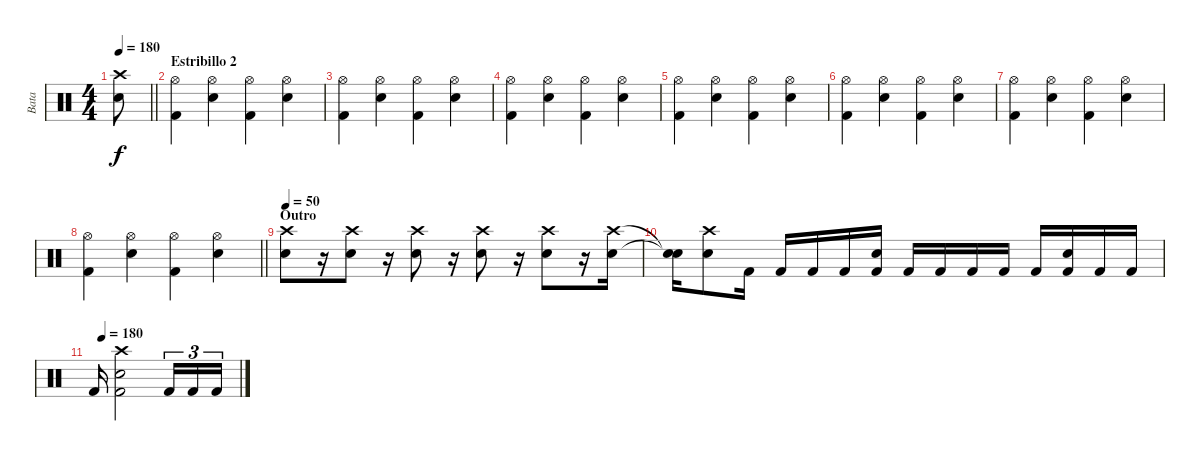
\track ("Bata" "Bata") {instrument percussion}
\staff {score}
\articulation defaults
\ts (4 4)
\tempo 180
\clef neutral
\barLineRight lightlight
\ks c
("Crash high (hit)" "Snare (hit) 2").8{dy f} |
\section ("" "Estribillo 2")
("Hi-Hat (open)" "Kick (hit) 2").4 ("Hi-Hat (open)" "Snare (hit) 2").4 ("Hi-Hat (open)" "Kick (hit) 2").4 ("Hi-Hat (open)" "Snare (hit) 2").4 |
("Hi-Hat (open)" "Kick (hit) 2").4 ("Hi-Hat (open)" "Snare (hit) 2").4 ("Hi-Hat (open)" "Kick (hit) 2").4 ("Hi-Hat (open)" "Snare (hit) 2").4 |
("Hi-Hat (open)" "Kick (hit) 2").4 ("Hi-Hat (open)" "Snare (hit) 2").4 ("Hi-Hat (open)" "Kick (hit) 2").4 ("Hi-Hat (open)" "Snare (hit) 2").4 |
("Hi-Hat (open)" "Kick (hit) 2").4 ("Hi-Hat (open)" "Snare (hit) 2").4 ("Hi-Hat (open)" "Kick (hit) 2").4 ("Hi-Hat (open)" "Snare (hit) 2").4 |
("Hi-Hat (open)" "Kick (hit) 2").4 ("Hi-Hat (open)" "Snare (hit) 2").4 ("Hi-Hat (open)" "Kick (hit) 2").4 ("Hi-Hat (open)" "Snare (hit) 2").4 |
("Hi-Hat (open)" "Kick (hit) 2").4 ("Hi-Hat (open)" "Snare (hit) 2").4 ("Hi-Hat (open)" "Kick (hit) 2").4 ("Hi-Hat (open)" "Snare (hit) 2").4 |
\barLineRight lightlight
("Hi-Hat (open)" "Kick (hit) 2").4 ("Hi-Hat (open)" "Snare (hit) 2").4 ("Hi-Hat (open)" "Kick (hit) 2").4 ("Hi-Hat (open)" "Snare (hit) 2").4 |
\section ("" "Outro")
\tempo 50
("Crash high (hit)" "Snare (hit) 2").8 r.16 ("Crash high (hit)" "Snare (hit) 2").8 r.16 ("Crash high (hit)" "Snare (hit) 2").8 r.16 ("Crash high (hit)" "Snare (hit) 2").8 r.16 ("Crash high (hit)" "Snare (hit) 2").8 r.16 ("Crash high (hit)" "Snare (hit) 2").16 |
("Snare (hit)"{t} "Snare (hit)"{t}).16 ("Crash high (hit)" "Snare (hit) 2").8 "Kick (hit) 2".16 "Kick (hit) 2".16 "Kick (hit) 2".16 "Kick (hit) 2".16 ("Snare (hit) 2" "Kick (hit) 2").16 "Kick (hit) 2".16 "Kick (hit) 2".16 "Kick (hit) 2".16 "Kick (hit) 2".16 "Kick (hit) 2".16 ("Snare (hit) 2" "Kick (hit) 2").16 "Kick (hit) 2".16 "Kick (hit) 2".16 |
\tempo (180 0.0625)
"Kick (hit) 2".16 ("Crash high (hit)" "Snare (hit) 2" "Kick (hit) 2").2 "Kick (hit) 2".16{tu (3 2)} "Kick (hit) 2".16{tu (3 2)} "Kick (hit) 2".16{tu (3 2)}
